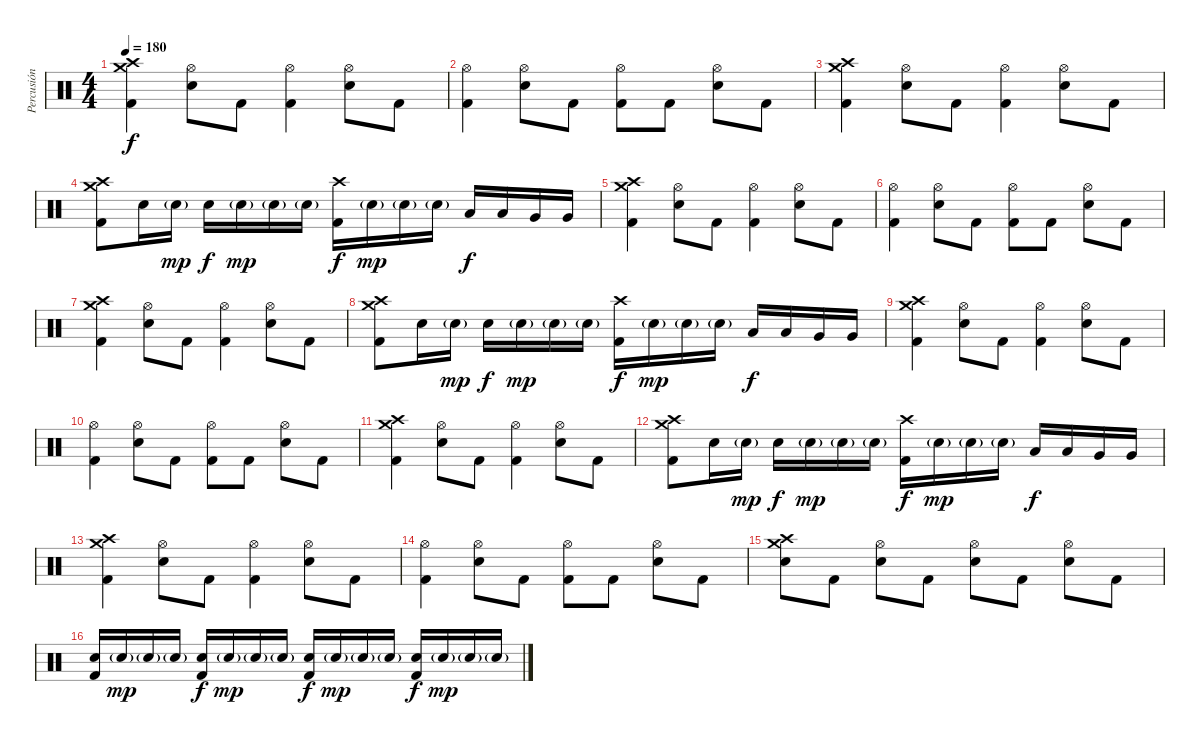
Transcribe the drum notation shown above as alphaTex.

\track ("Percusión" "Percusión") {instrument percussion}
\staff {score}
\articulation defaults
\ts (4 4)
\tempo 180
\clef neutral
\ks c
("Crash high (hit)" "Crash medium (hit)" "Kick (hit) 2").4{dy f} ("Hi-Hat (open)" "Electric Snare (hit)").8 "Kick (hit) 2".8 ("Hi-Hat (open)" "Kick (hit) 2").4 ("Hi-Hat (open)" "Electric Snare (hit)").8 "Kick (hit) 2".8 |
("Hi-Hat (open)" "Kick (hit) 2").4 ("Hi-Hat (open)" "Electric Snare (hit)").8 "Kick (hit) 2".8 ("Hi-Hat (open)" "Kick (hit) 2").8 "Kick (hit) 2".8 ("Hi-Hat (open)" "Electric Snare (hit)").8 "Kick (hit) 2".8 |
("Crash high (hit)" "Crash medium (hit)" "Kick (hit) 2").4 ("Hi-Hat (open)" "Electric Snare (hit)").8 "Kick (hit) 2".8 ("Hi-Hat (open)" "Kick (hit) 2").4 ("Hi-Hat (open)" "Electric Snare (hit)").8 "Kick (hit) 2".8 |
("Crash high (hit)" "Crash medium (hit)" "Kick (hit) 2").8 "Electric Snare (hit)".16 "Electric Snare (hit)"{g}.16{dy mp} "Electric Snare (hit)".16{dy f} "Electric Snare (hit)"{g}.16{dy mp} "Electric Snare (hit)"{g}.16 "Electric Snare (hit)"{g}.16 ("Crash high (hit)" "Kick (hit) 2").16{dy f} "Electric Snare (hit)"{g}.16{dy mp} "Electric Snare (hit)"{g}.16 "Electric Snare (hit)"{g}.16 "Low Tom (hit)".16{dy f} "Low Tom (hit)".16 "Very Low Tom (hit)".16 "Very Low Tom (hit)".16 |
("Crash high (hit)" "Crash medium (hit)" "Kick (hit) 2").4 ("Hi-Hat (open)" "Electric Snare (hit)").8 "Kick (hit) 2".8 ("Hi-Hat (open)" "Kick (hit) 2").4 ("Hi-Hat (open)" "Electric Snare (hit)").8 "Kick (hit) 2".8 |
("Hi-Hat (open)" "Kick (hit) 2").4 ("Hi-Hat (open)" "Electric Snare (hit)").8 "Kick (hit) 2".8 ("Hi-Hat (open)" "Kick (hit) 2").8 "Kick (hit) 2".8 ("Hi-Hat (open)" "Electric Snare (hit)").8 "Kick (hit) 2".8 |
("Crash high (hit)" "Crash medium (hit)" "Kick (hit) 2").4 ("Hi-Hat (open)" "Electric Snare (hit)").8 "Kick (hit) 2".8 ("Hi-Hat (open)" "Kick (hit) 2").4 ("Hi-Hat (open)" "Electric Snare (hit)").8 "Kick (hit) 2".8 |
("Crash high (hit)" "Crash medium (hit)" "Kick (hit) 2").8 "Electric Snare (hit)".16 "Electric Snare (hit)"{g}.16{dy mp} "Electric Snare (hit)".16{dy f} "Electric Snare (hit)"{g}.16{dy mp} "Electric Snare (hit)"{g}.16 "Electric Snare (hit)"{g}.16 ("Crash high (hit)" "Kick (hit) 2").16{dy f} "Electric Snare (hit)"{g}.16{dy mp} "Electric Snare (hit)"{g}.16 "Electric Snare (hit)"{g}.16 "Low Tom (hit)".16{dy f} "Low Tom (hit)".16 "Very Low Tom (hit)".16 "Very Low Tom (hit)".16 |
("Crash high (hit)" "Crash medium (hit)" "Kick (hit) 2").4{volume 12} ("Hi-Hat (open)" "Electric Snare (hit)").8 "Kick (hit) 2".8 ("Hi-Hat (open)" "Kick (hit) 2").4 ("Hi-Hat (open)" "Electric Snare (hit)").8 "Kick (hit) 2".8 |
("Hi-Hat (open)" "Kick (hit) 2").4 ("Hi-Hat (open)" "Electric Snare (hit)").8 "Kick (hit) 2".8 ("Hi-Hat (open)" "Kick (hit) 2").8 "Kick (hit) 2".8 ("Hi-Hat (open)" "Electric Snare (hit)").8 "Kick (hit) 2".8 |
("Crash high (hit)" "Crash medium (hit)" "Kick (hit) 2").4 ("Hi-Hat (open)" "Electric Snare (hit)").8 "Kick (hit) 2".8 ("Hi-Hat (open)" "Kick (hit) 2").4 ("Hi-Hat (open)" "Electric Snare (hit)").8 "Kick (hit) 2".8 |
("Crash high (hit)" "Crash medium (hit)" "Kick (hit) 2").8 "Electric Snare (hit)".16 "Electric Snare (hit)"{g}.16{dy mp} "Electric Snare (hit)".16{dy f} "Electric Snare (hit)"{g}.16{dy mp} "Electric Snare (hit)"{g}.16 "Electric Snare (hit)"{g}.16 ("Crash high (hit)" "Kick (hit) 2").16{dy f} "Electric Snare (hit)"{g}.16{dy mp} "Electric Snare (hit)"{g}.16 "Electric Snare (hit)"{g}.16 "Low Tom (hit)".16{dy f} "Low Tom (hit)".16 "Very Low Tom (hit)".16 "Very Low Tom (hit)".16 |
("Crash high (hit)" "Crash medium (hit)" "Kick (hit) 2").4 ("Hi-Hat (open)" "Electric Snare (hit)").8 "Kick (hit) 2".8 ("Hi-Hat (open)" "Kick (hit) 2").4 ("Hi-Hat (open)" "Electric Snare (hit)").8 "Kick (hit) 2".8 |
("Hi-Hat (open)" "Kick (hit) 2").4 ("Hi-Hat (open)" "Electric Snare (hit)").8 "Kick (hit) 2".8 ("Hi-Hat (open)" "Kick (hit) 2").8 "Kick (hit) 2".8 ("Hi-Hat (open)" "Electric Snare (hit)").8 "Kick (hit) 2".8 |
("Crash high (hit)" "Crash medium (hit)" "Electric Snare (hit)").8 "Kick (hit) 2".8 ("Hi-Hat (open)" "Electric Snare (hit)").8 "Kick (hit) 2".8 ("Hi-Hat (open)" "Electric Snare (hit)").8 "Kick (hit) 2".8 ("Hi-Hat (open)" "Electric Snare (hit)").8 "Kick (hit) 2".8 |
("Electric Snare (hit)" "Kick (hit) 2").16 "Electric Snare (hit)"{g}.16{dy mp} "Electric Snare (hit)"{g}.16 "Electric Snare (hit)"{g}.16 ("Electric Snare (hit)" "Kick (hit) 2").16{dy f} "Electric Snare (hit)"{g}.16{dy mp} "Electric Snare (hit)"{g}.16 "Electric Snare (hit)"{g}.16 ("Electric Snare (hit)" "Kick (hit) 2").16{dy f} "Electric Snare (hit)"{g}.16{dy mp} "Electric Snare (hit)"{g}.16 "Electric Snare (hit)"{g}.16 ("Electric Snare (hit)" "Kick (hit) 2").16{dy f} "Electric Snare (hit)"{g}.16{dy mp} "Electric Snare (hit)"{g}.16 "Electric Snare (hit)"{g}.16
